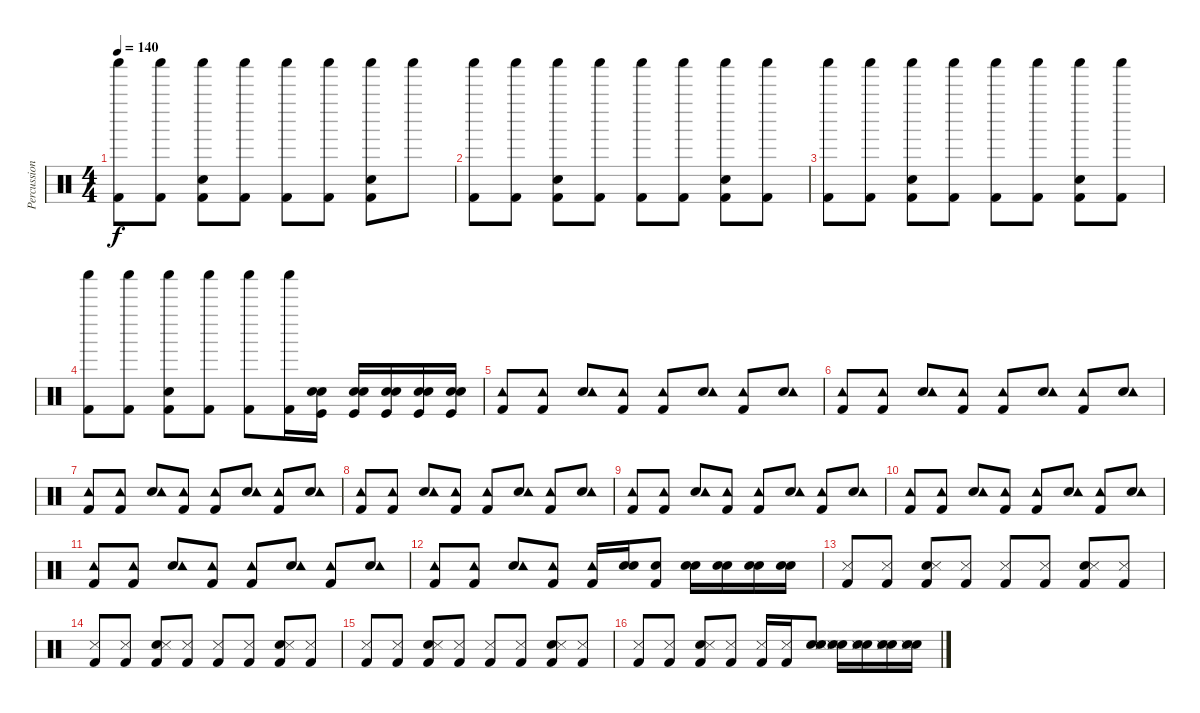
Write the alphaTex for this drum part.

\track ("Percussion" "Percussion") {instrument percussion}
\staff {score}
\articulation defaults
\ts (4 4)
\tempo 140
\clef neutral
\ks c
("Kick (hit) 2" "Shaker (hit)").8{dy f} ("Kick (hit) 2" "Shaker (hit)").8 ("Kick (hit) 2" "Snare (hit) 2" "Shaker (hit)").8 ("Kick (hit) 2" "Shaker (hit)").8 ("Kick (hit) 2" "Shaker (hit)").8 ("Kick (hit) 2" "Shaker (hit)").8 ("Kick (hit) 2" "Snare (hit) 2" "Shaker (hit)").8 "Shaker (hit)".8 |
("Kick (hit) 2" "Shaker (hit)").8 ("Kick (hit) 2" "Shaker (hit)").8 ("Kick (hit) 2" "Snare (hit) 2" "Shaker (hit)").8 ("Kick (hit) 2" "Shaker (hit)").8 ("Kick (hit) 2" "Shaker (hit)").8 ("Kick (hit) 2" "Shaker (hit)").8 ("Kick (hit) 2" "Snare (hit) 2" "Shaker (hit)").8 ("Kick (hit) 2" "Shaker (hit)").8 |
("Kick (hit) 2" "Shaker (hit)").8 ("Kick (hit) 2" "Shaker (hit)").8 ("Kick (hit) 2" "Snare (hit) 2" "Shaker (hit)").8 ("Kick (hit) 2" "Shaker (hit)").8 ("Kick (hit) 2" "Shaker (hit)").8 ("Kick (hit) 2" "Shaker (hit)").8 ("Kick (hit) 2" "Snare (hit) 2" "Shaker (hit)").8 ("Kick (hit) 2" "Shaker (hit)").8 |
("Kick (hit) 2" "Shaker (hit)").8 ("Kick (hit) 2" "Shaker (hit)").8 ("Kick (hit) 2" "Snare (hit) 2" "Shaker (hit)").8 ("Kick (hit) 2" "Shaker (hit)").8 ("Kick (hit) 2" "Shaker (hit)").8 ("Kick (hit) 2" "Shaker (hit)").16 ("Snare (hit) 2" "Snare (hit) 2" "Kick (hit)").16 ("Snare (hit) 2" "Snare (hit) 2" "Kick (hit)").16 ("Snare (hit) 2" "Snare (hit) 2" "Kick (hit)").16 ("Snare (hit) 2" "Snare (hit) 2" "Kick (hit)").16 ("Snare (hit) 2" "Snare (hit) 2" "Kick (hit)").16 |
("Kick (hit) 2" "Tambourine (hit)").8 ("Kick (hit) 2" "Tambourine (hit)").8 ("Snare (hit) 2" "Tambourine (hit)").8 ("Kick (hit) 2" "Tambourine (hit)").8 ("Kick (hit) 2" "Tambourine (hit)").8 ("Snare (hit) 2" "Tambourine (hit)").8 ("Kick (hit) 2" "Tambourine (hit)").8 ("Snare (hit) 2" "Tambourine (hit)").8 |
("Kick (hit) 2" "Tambourine (hit)").8 ("Kick (hit) 2" "Tambourine (hit)").8 ("Snare (hit) 2" "Tambourine (hit)").8 ("Kick (hit) 2" "Tambourine (hit)").8 ("Kick (hit) 2" "Tambourine (hit)").8 ("Snare (hit) 2" "Tambourine (hit)").8 ("Kick (hit) 2" "Tambourine (hit)").8 ("Snare (hit) 2" "Tambourine (hit)").8 |
("Kick (hit) 2" "Tambourine (hit)").8 ("Kick (hit) 2" "Tambourine (hit)").8 ("Snare (hit) 2" "Tambourine (hit)").8 ("Kick (hit) 2" "Tambourine (hit)").8 ("Kick (hit) 2" "Tambourine (hit)").8 ("Snare (hit) 2" "Tambourine (hit)").8 ("Kick (hit) 2" "Tambourine (hit)").8 ("Snare (hit) 2" "Tambourine (hit)").8 |
("Kick (hit) 2" "Tambourine (hit)").8 ("Kick (hit) 2" "Tambourine (hit)").8 ("Snare (hit) 2" "Tambourine (hit)").8 ("Kick (hit) 2" "Tambourine (hit)").8 ("Kick (hit) 2" "Tambourine (hit)").8 ("Snare (hit) 2" "Tambourine (hit)").8 ("Kick (hit) 2" "Tambourine (hit)").8 ("Snare (hit) 2" "Tambourine (hit)").8 |
("Kick (hit) 2" "Tambourine (hit)").8 ("Kick (hit) 2" "Tambourine (hit)").8 ("Snare (hit) 2" "Tambourine (hit)").8 ("Kick (hit) 2" "Tambourine (hit)").8 ("Kick (hit) 2" "Tambourine (hit)").8 ("Snare (hit) 2" "Tambourine (hit)").8 ("Kick (hit) 2" "Tambourine (hit)").8 ("Snare (hit) 2" "Tambourine (hit)").8 |
("Kick (hit) 2" "Tambourine (hit)").8 ("Kick (hit) 2" "Tambourine (hit)").8 ("Snare (hit) 2" "Tambourine (hit)").8 ("Kick (hit) 2" "Tambourine (hit)").8 ("Kick (hit) 2" "Tambourine (hit)").8 ("Snare (hit) 2" "Tambourine (hit)").8 ("Kick (hit) 2" "Tambourine (hit)").8 ("Snare (hit) 2" "Tambourine (hit)").8 |
("Kick (hit) 2" "Tambourine (hit)").8 ("Kick (hit) 2" "Tambourine (hit)").8 ("Snare (hit) 2" "Tambourine (hit)").8 ("Kick (hit) 2" "Tambourine (hit)").8 ("Kick (hit) 2" "Tambourine (hit)").8 ("Snare (hit) 2" "Tambourine (hit)").8 ("Kick (hit) 2" "Tambourine (hit)").8 ("Snare (hit) 2" "Tambourine (hit)").8 |
("Kick (hit) 2" "Tambourine (hit)").8 ("Kick (hit) 2" "Tambourine (hit)").8 ("Snare (hit) 2" "Tambourine (hit)").8 ("Kick (hit) 2" "Tambourine (hit)").8 ("Kick (hit) 2" "Tambourine (hit)").16 ("Electric Snare (hit)" "Snare (hit) 2").16 ("Electric Snare (hit)" "Kick (hit) 2").8 ("Electric Snare (hit)" "Snare (hit) 2").16 ("Electric Snare (hit)" "Snare (hit) 2").16 ("Electric Snare (hit)" "Snare (hit) 2").16 ("Electric Snare (hit)" "Snare (hit) 2").16 |
("Kick (hit) 2" "Snare (side stick) 3").8 ("Kick (hit) 2" "Snare (side stick) 3").8 ("Kick (hit) 2" "Snare (hit) 2" "Snare (side stick) 3").8 ("Kick (hit) 2" "Snare (side stick) 3").8 ("Kick (hit) 2" "Snare (side stick) 3").8 ("Kick (hit) 2" "Snare (side stick) 3").8 ("Kick (hit) 2" "Snare (hit) 2" "Snare (side stick) 3").8 ("Kick (hit) 2" "Snare (side stick) 3").8 |
("Kick (hit) 2" "Snare (side stick) 3").8 ("Kick (hit) 2" "Snare (side stick) 3").8 ("Kick (hit) 2" "Snare (hit) 2" "Snare (side stick) 3").8 ("Kick (hit) 2" "Snare (side stick) 3").8 ("Kick (hit) 2" "Snare (side stick) 3").8 ("Kick (hit) 2" "Snare (side stick) 3").8 ("Kick (hit) 2" "Snare (hit) 2" "Snare (side stick) 3").8 ("Kick (hit) 2" "Snare (side stick) 3").8 |
("Kick (hit) 2" "Snare (side stick) 3").8 ("Kick (hit) 2" "Snare (side stick) 3").8 ("Kick (hit) 2" "Snare (hit) 2" "Snare (side stick) 3").8 ("Kick (hit) 2" "Snare (side stick) 3").8 ("Kick (hit) 2" "Snare (side stick) 3").8 ("Kick (hit) 2" "Snare (side stick) 3").8 ("Kick (hit) 2" "Snare (hit) 2" "Snare (side stick) 3").8 ("Kick (hit) 2" "Snare (side stick) 3").8 |
("Kick (hit) 2" "Snare (side stick) 3").8 ("Kick (hit) 2" "Snare (side stick) 3").8 ("Kick (hit) 2" "Snare (hit) 2" "Snare (side stick) 3").8 ("Kick (hit) 2" "Snare (side stick) 3").8 ("Kick (hit) 2" "Snare (side stick) 3").16 ("Kick (hit) 2" "Snare (side stick) 3").16 ("Snare (hit) 2" "Snare (hit) 2" "Snare (side stick) 3").8 ("Snare (hit) 2" "Snare (hit) 2" "Snare (side stick) 3").16 ("Snare (hit) 2" "Snare (hit) 2" "Snare (side stick) 3").16 ("Snare (hit) 2" "Snare (hit) 2" "Snare (side stick) 3").16 ("Snare (hit) 2" "Snare (hit) 2" "Snare (side stick) 3").16
